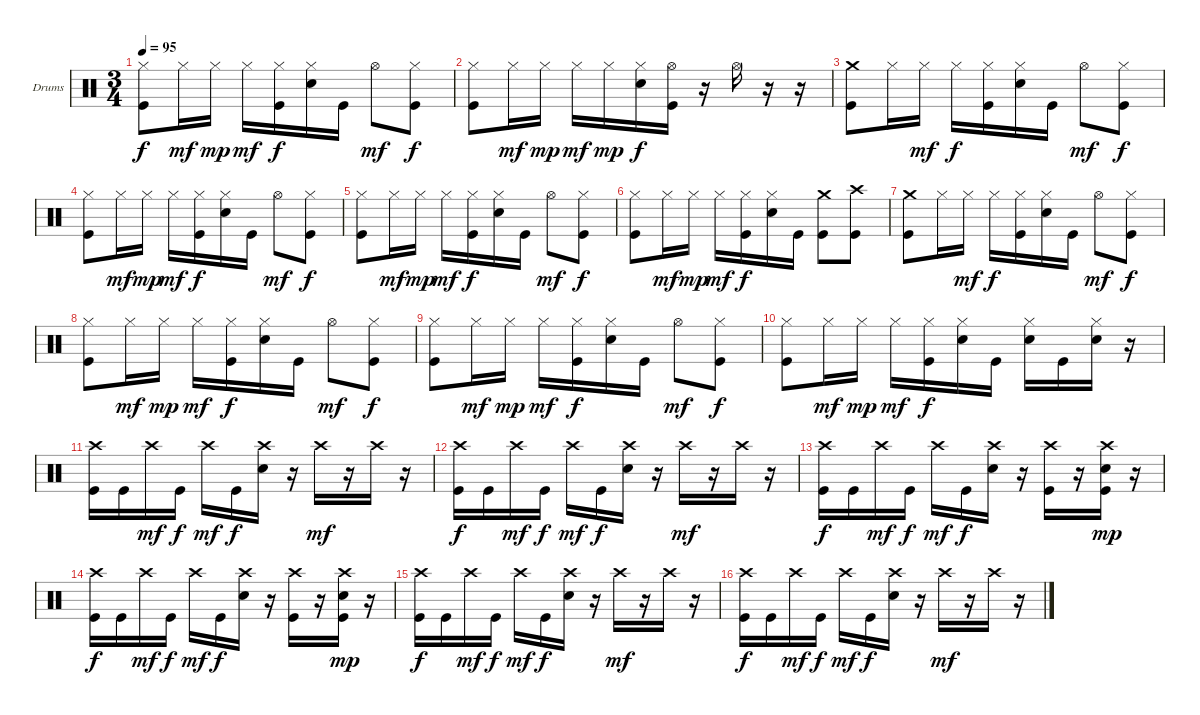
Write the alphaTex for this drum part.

\defaultSystemsLayout 4
\bracketExtendMode groupsimilarinstruments
\firstSystemTrackNameOrientation horizontal
\otherSystemsTrackNameOrientation horizontal
\track ("Drumkit" "Drums") {instrument percussion}
\staff {score}
\articulation defaults
\ts (3 4)
\tempo 95
\clef neutral
\ks c
("Kick (hit)" "Hi-Hat (closed)").8{dy f} "Hi-Hat (closed)".16{dy mf} "Hi-Hat (closed)".16{dy mp} "Hi-Hat (closed)".16{dy mf} ("Kick (hit)" "Hi-Hat (closed)").16{dy f} ("Snare (hit) 2" "Hi-Hat (closed)").16 "Kick (hit)".16 "Hi-Hat (open)".8{dy mf} ("Kick (hit)" "Hi-Hat (closed)").8{dy f} |
("Kick (hit)" "Hi-Hat (closed)").8 "Hi-Hat (closed)".16{dy mf} "Hi-Hat (closed)".16{dy mp} "Hi-Hat (closed)".16{dy mf} "Hi-Hat (closed)".16{dy mp} ("Snare (hit) 2" "Hi-Hat (closed)").16{dy f} ("Kick (hit)" "Hi-Hat (open)").16 r.16 "Hi-Hat (open)".16 r.16 r.16 |
("Kick (hit)" "Crash medium (hit)").8 "Hi-Hat (closed)".16 "Hi-Hat (closed)".16{dy mf} "Hi-Hat (closed)".16{dy f} ("Kick (hit)" "Hi-Hat (closed)").16 ("Snare (hit) 2" "Hi-Hat (closed)").16 "Kick (hit)".16 "Hi-Hat (open)".8{dy mf} ("Kick (hit)" "Hi-Hat (closed)").8{dy f} |
("Kick (hit)" "Hi-Hat (closed)").8 "Hi-Hat (closed)".16{dy mf} "Hi-Hat (closed)".16{dy mp} "Hi-Hat (closed)".16{dy mf} ("Kick (hit)" "Hi-Hat (closed)").16{dy f} ("Snare (hit) 2" "Hi-Hat (closed)").16 "Kick (hit)".16 "Hi-Hat (open)".8{dy mf} ("Kick (hit)" "Hi-Hat (closed)").8{dy f} |
("Kick (hit)" "Hi-Hat (closed)").8 "Hi-Hat (closed)".16{dy mf} "Hi-Hat (closed)".16{dy mp} "Hi-Hat (closed)".16{dy mf} ("Kick (hit)" "Hi-Hat (closed)").16{dy f} ("Snare (hit) 2" "Hi-Hat (closed)").16 "Kick (hit)".16 "Hi-Hat (open)".8{dy mf} ("Kick (hit)" "Hi-Hat (closed)").8{dy f} |
("Kick (hit)" "Hi-Hat (closed)").8 "Hi-Hat (closed)".16{dy mf} "Hi-Hat (closed)".16{dy mp} "Hi-Hat (closed)".16{dy mf} ("Kick (hit)" "Hi-Hat (closed)").16{dy f} ("Snare (hit) 2" "Hi-Hat (closed)").16 "Kick (hit)".16 ("Kick (hit)" "Crash medium (hit)").8 ("Kick (hit)" "Crash high (hit)").8 |
("Kick (hit)" "Crash medium (hit)").8 "Hi-Hat (closed)".16 "Hi-Hat (closed)".16{dy mf} "Hi-Hat (closed)".16{dy f} ("Kick (hit)" "Hi-Hat (closed)").16 ("Snare (hit) 2" "Hi-Hat (closed)").16 "Kick (hit)".16 "Hi-Hat (open)".8{dy mf} ("Kick (hit)" "Hi-Hat (closed)").8{dy f} |
("Kick (hit)" "Hi-Hat (closed)").8 "Hi-Hat (closed)".16{dy mf} "Hi-Hat (closed)".16{dy mp} "Hi-Hat (closed)".16{dy mf} ("Kick (hit)" "Hi-Hat (closed)").16{dy f} ("Snare (hit) 2" "Hi-Hat (closed)").16 "Kick (hit)".16 "Hi-Hat (open)".8{dy mf} ("Kick (hit)" "Hi-Hat (closed)").8{dy f} |
("Kick (hit)" "Hi-Hat (closed)").8 "Hi-Hat (closed)".16{dy mf} "Hi-Hat (closed)".16{dy mp} "Hi-Hat (closed)".16{dy mf} ("Kick (hit)" "Hi-Hat (closed)").16{dy f} ("Snare (hit) 2" "Hi-Hat (closed)").16 "Kick (hit)".16 "Hi-Hat (open)".8{dy mf} ("Kick (hit)" "Hi-Hat (closed)").8{dy f} |
("Kick (hit)" "Hi-Hat (closed)").8 "Hi-Hat (closed)".16{dy mf} "Hi-Hat (closed)".16{dy mp} "Hi-Hat (closed)".16{dy mf} ("Kick (hit)" "Hi-Hat (closed)").16{dy f} ("Snare (hit) 2" "Hi-Hat (closed)").16 "Kick (hit)".16 ("Snare (hit) 2" "Hi-Hat (closed)").16 "Kick (hit)".16 ("Snare (hit) 2" "Hi-Hat (closed)").16 r.16 |
("Kick (hit)" "Crash high (hit)").16 "Kick (hit)".16 "Crash high (hit)".16{dy mf} "Kick (hit)".16{dy f} "Crash high (hit)".16{dy mf} "Kick (hit)".16{dy f} ("Snare (hit) 2" "Crash high (hit)").16 r.16 "Crash high (hit)".16{dy mf} r.16 "Crash high (hit)".16 r.16 |
("Kick (hit)" "Crash high (hit)").16{dy f} "Kick (hit)".16 "Crash high (hit)".16{dy mf} "Kick (hit)".16{dy f} "Crash high (hit)".16{dy mf} "Kick (hit)".16{dy f} ("Snare (hit) 2" "Crash high (hit)").16 r.16 "Crash high (hit)".16{dy mf} r.16 "Crash high (hit)".16 r.16 |
("Kick (hit)" "Crash high (hit)").16{dy f} "Kick (hit)".16 "Crash high (hit)".16{dy mf} "Kick (hit)".16{dy f} "Crash high (hit)".16{dy mf} "Kick (hit)".16{dy f} ("Snare (hit) 2" "Crash high (hit)").16 r.16 ("Kick (hit)" "Crash high (hit)").16 r.16 ("Kick (hit)" "Snare (hit) 2" "Crash high (hit)").16{dy mp} r.16 |
("Kick (hit)" "Crash high (hit)").16{dy f} "Kick (hit)".16 "Crash high (hit)".16{dy mf} "Kick (hit)".16{dy f} "Crash high (hit)".16{dy mf} "Kick (hit)".16{dy f} ("Snare (hit) 2" "Crash high (hit)").16 r.16 ("Kick (hit)" "Crash high (hit)").16 r.16 ("Kick (hit)" "Snare (hit) 2" "Crash high (hit)").16{dy mp} r.16 |
("Kick (hit)" "Crash high (hit)").16{dy f} "Kick (hit)".16 "Crash high (hit)".16{dy mf} "Kick (hit)".16{dy f} "Crash high (hit)".16{dy mf} "Kick (hit)".16{dy f} ("Snare (hit) 2" "Crash high (hit)").16 r.16 "Crash high (hit)".16{dy mf} r.16 "Crash high (hit)".16 r.16 |
("Kick (hit)" "Crash high (hit)").16{dy f} "Kick (hit)".16 "Crash high (hit)".16{dy mf} "Kick (hit)".16{dy f} "Crash high (hit)".16{dy mf} "Kick (hit)".16{dy f} ("Snare (hit) 2" "Crash high (hit)").16 r.16 "Crash high (hit)".16{dy mf} r.16 "Crash high (hit)".16 r.16
